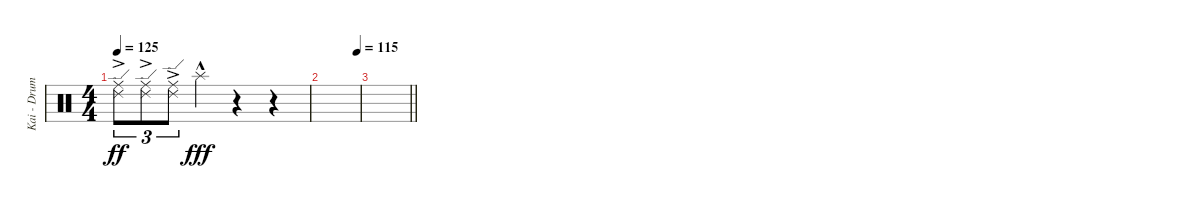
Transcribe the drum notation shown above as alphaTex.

\track ("Kai - Drums" "Kai - Drum") {instrument percussion}
\staff {score}
\articulation defaults
\ts (4 4)
\tempo 125
\clef neutral
\ks c
("Ride (edge) 2" "Ride (middle)"{ac}).8{tu (3 2) dy ff} ("Ride (edge) 2" "Ride (middle)"{ac}).8{tu (3 2)} ("Ride (edge) 2"{ac} "Ride (middle)").8{tu (3 2)} "Splash (hit)"{hac}.4{dy fff} r.4 r.4 |
\tempo (115 0.9375)
|
\barLineRight lightlight
